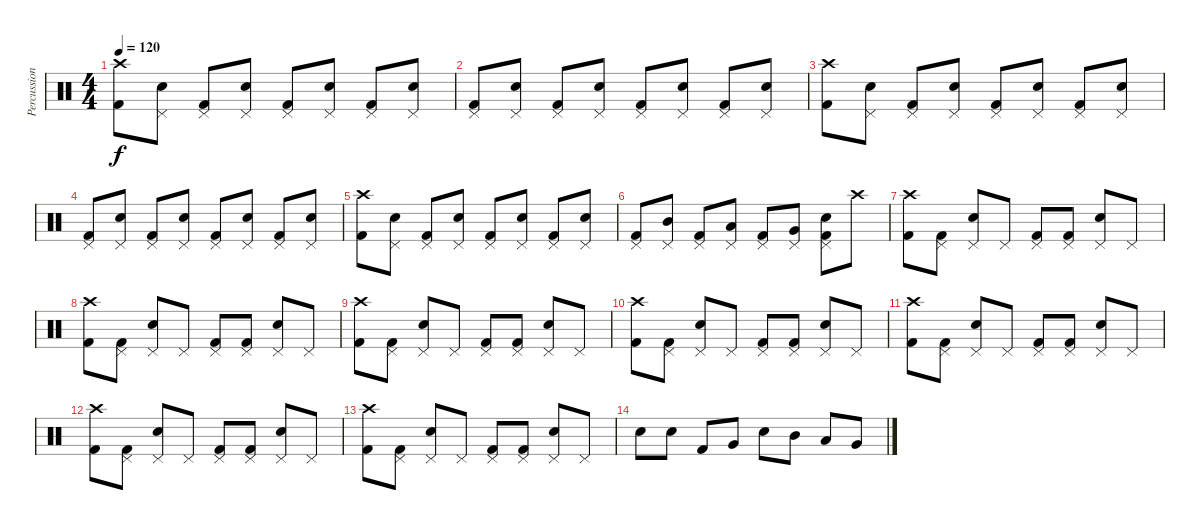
\track ("Percussions" "Percussion") {instrument percussion}
\staff {score}
\articulation defaults
\ts (4 4)
\tempo 120
\clef neutral
\ks c
("Crash high (hit)" "Kick (hit) 2").8{dy f} ("Pedal Hi-Hat (hit)" "Snare (hit) 2").8 ("Pedal Hi-Hat (hit)" "Kick (hit) 2").8 ("Pedal Hi-Hat (hit)" "Snare (hit) 2").8 ("Pedal Hi-Hat (hit)" "Kick (hit) 2").8 ("Pedal Hi-Hat (hit)" "Snare (hit) 2").8 ("Pedal Hi-Hat (hit)" "Kick (hit) 2").8 ("Pedal Hi-Hat (hit)" "Snare (hit) 2").8 |
("Pedal Hi-Hat (hit)" "Kick (hit) 2").8 ("Pedal Hi-Hat (hit)" "Snare (hit) 2").8 ("Pedal Hi-Hat (hit)" "Kick (hit) 2").8 ("Pedal Hi-Hat (hit)" "Snare (hit) 2").8 ("Pedal Hi-Hat (hit)" "Kick (hit) 2").8 ("Pedal Hi-Hat (hit)" "Snare (hit) 2").8 ("Pedal Hi-Hat (hit)" "Kick (hit) 2").8 ("Pedal Hi-Hat (hit)" "Snare (hit) 2").8 |
("Crash high (hit)" "Kick (hit) 2").8 ("Pedal Hi-Hat (hit)" "Snare (hit) 2").8 ("Pedal Hi-Hat (hit)" "Kick (hit) 2").8 ("Pedal Hi-Hat (hit)" "Snare (hit) 2").8 ("Pedal Hi-Hat (hit)" "Kick (hit) 2").8 ("Pedal Hi-Hat (hit)" "Snare (hit) 2").8 ("Pedal Hi-Hat (hit)" "Kick (hit) 2").8 ("Pedal Hi-Hat (hit)" "Snare (hit) 2").8 |
("Pedal Hi-Hat (hit)" "Kick (hit) 2").8 ("Pedal Hi-Hat (hit)" "Snare (hit) 2").8 ("Pedal Hi-Hat (hit)" "Kick (hit) 2").8 ("Pedal Hi-Hat (hit)" "Snare (hit) 2").8 ("Pedal Hi-Hat (hit)" "Kick (hit) 2").8 ("Pedal Hi-Hat (hit)" "Snare (hit) 2").8 ("Pedal Hi-Hat (hit)" "Kick (hit) 2").8 ("Pedal Hi-Hat (hit)" "Snare (hit) 2").8 |
("Crash high (hit)" "Kick (hit) 2").8 ("Pedal Hi-Hat (hit)" "Snare (hit) 2").8 ("Pedal Hi-Hat (hit)" "Kick (hit) 2").8 ("Pedal Hi-Hat (hit)" "Snare (hit) 2").8 ("Pedal Hi-Hat (hit)" "Kick (hit) 2").8 ("Pedal Hi-Hat (hit)" "Snare (hit) 2").8 ("Pedal Hi-Hat (hit)" "Kick (hit) 2").8 ("Pedal Hi-Hat (hit)" "Snare (hit) 2").8 |
("Pedal Hi-Hat (hit)" "Kick (hit) 2").8 ("Pedal Hi-Hat (hit)" "Mid Tom (hit)").8 ("Pedal Hi-Hat (hit)" "Kick (hit) 2").8 ("Pedal Hi-Hat (hit)" "Low Tom (hit)").8 ("Pedal Hi-Hat (hit)" "Kick (hit) 2").8 ("Pedal Hi-Hat (hit)" "Very Low Tom (hit)").8 ("Pedal Hi-Hat (hit)" "Snare (hit) 2" "Kick (hit) 2").8 "Crash high (hit)".8 |
("Crash high (hit)" "Kick (hit) 2").8 ("Pedal Hi-Hat (hit)" "Kick (hit) 2").8 ("Pedal Hi-Hat (hit)" "Snare (hit) 2").8 "Pedal Hi-Hat (hit)".8 ("Pedal Hi-Hat (hit)" "Kick (hit) 2").8 ("Pedal Hi-Hat (hit)" "Kick (hit) 2").8 ("Pedal Hi-Hat (hit)" "Snare (hit) 2").8 "Pedal Hi-Hat (hit)".8 |
("Crash high (hit)" "Kick (hit) 2").8 ("Pedal Hi-Hat (hit)" "Kick (hit) 2").8 ("Pedal Hi-Hat (hit)" "Snare (hit) 2").8 "Pedal Hi-Hat (hit)".8 ("Pedal Hi-Hat (hit)" "Kick (hit) 2").8 ("Pedal Hi-Hat (hit)" "Kick (hit) 2").8 ("Pedal Hi-Hat (hit)" "Snare (hit) 2").8 "Pedal Hi-Hat (hit)".8 |
("Crash high (hit)" "Kick (hit) 2").8 ("Pedal Hi-Hat (hit)" "Kick (hit) 2").8 ("Pedal Hi-Hat (hit)" "Snare (hit) 2").8 "Pedal Hi-Hat (hit)".8 ("Pedal Hi-Hat (hit)" "Kick (hit) 2").8 ("Pedal Hi-Hat (hit)" "Kick (hit) 2").8 ("Pedal Hi-Hat (hit)" "Snare (hit) 2").8 "Pedal Hi-Hat (hit)".8 |
("Crash high (hit)" "Kick (hit) 2").8 ("Pedal Hi-Hat (hit)" "Kick (hit) 2").8 ("Pedal Hi-Hat (hit)" "Snare (hit) 2").8 "Pedal Hi-Hat (hit)".8 ("Pedal Hi-Hat (hit)" "Kick (hit) 2").8 ("Pedal Hi-Hat (hit)" "Kick (hit) 2").8 ("Pedal Hi-Hat (hit)" "Snare (hit) 2").8 "Pedal Hi-Hat (hit)".8 |
("Crash high (hit)" "Kick (hit) 2").8 ("Pedal Hi-Hat (hit)" "Kick (hit) 2").8 ("Pedal Hi-Hat (hit)" "Snare (hit) 2").8 "Pedal Hi-Hat (hit)".8 ("Pedal Hi-Hat (hit)" "Kick (hit) 2").8 ("Pedal Hi-Hat (hit)" "Kick (hit) 2").8 ("Pedal Hi-Hat (hit)" "Snare (hit) 2").8 "Pedal Hi-Hat (hit)".8 |
("Crash high (hit)" "Kick (hit) 2").8 ("Pedal Hi-Hat (hit)" "Kick (hit) 2").8 ("Pedal Hi-Hat (hit)" "Snare (hit) 2").8 "Pedal Hi-Hat (hit)".8 ("Pedal Hi-Hat (hit)" "Kick (hit) 2").8 ("Pedal Hi-Hat (hit)" "Kick (hit) 2").8 ("Pedal Hi-Hat (hit)" "Snare (hit) 2").8 "Pedal Hi-Hat (hit)".8 |
("Crash high (hit)" "Kick (hit) 2").8 ("Pedal Hi-Hat (hit)" "Kick (hit) 2").8 ("Pedal Hi-Hat (hit)" "Snare (hit) 2").8 "Pedal Hi-Hat (hit)".8 ("Pedal Hi-Hat (hit)" "Kick (hit) 2").8 ("Pedal Hi-Hat (hit)" "Kick (hit) 2").8 ("Pedal Hi-Hat (hit)" "Snare (hit) 2").8 "Pedal Hi-Hat (hit)".8 |
"Snare (hit) 2".8 "Snare (hit) 2".8 "Kick (hit) 2".8 "Very Low Tom (hit)".8 "Snare (hit) 2".8 "Mid Tom (hit)".8 "Low Tom (hit)".8 "Very Low Tom (hit)".8
